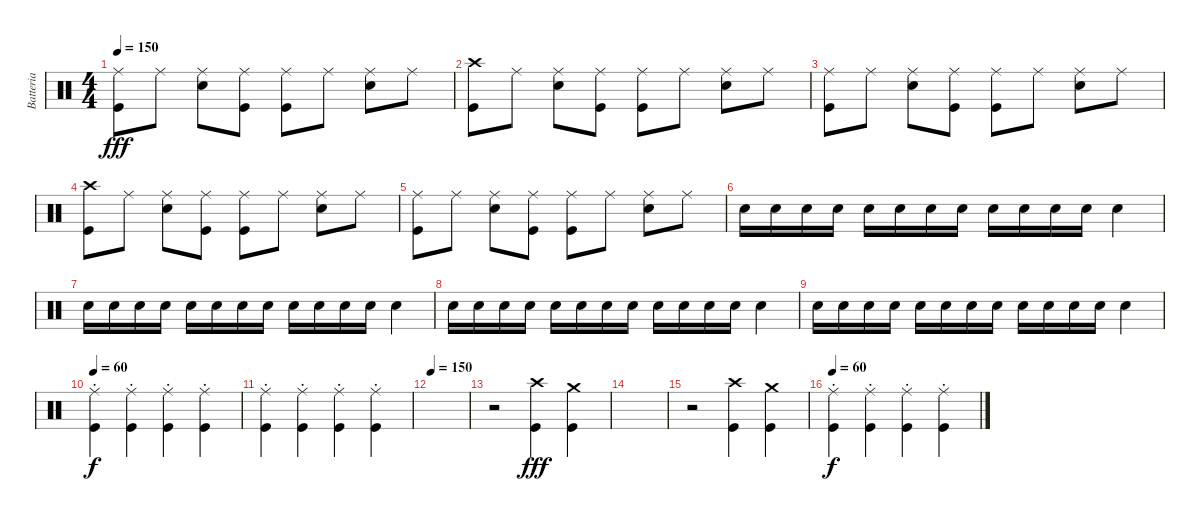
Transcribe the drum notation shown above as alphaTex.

\track ("Batteria" "Batteria") {instrument percussion}
\staff {score}
\articulation defaults
\ts (4 4)
\tempo 150
\clef neutral
\ks c
("Kick (hit)" "Ride (middle)").8{dy fff} "Ride (middle)".8 ("Ride (middle)" "Electric Snare (hit)").8 ("Kick (hit)" "Ride (middle)").8 ("Kick (hit)" "Ride (middle)").8 "Ride (middle)".8 ("Electric Snare (hit)" "Ride (middle)").8 "Ride (middle)".8 |
("Kick (hit)" "Crash high (hit)").8 "Ride (middle)".8 ("Ride (middle)" "Electric Snare (hit)").8 ("Kick (hit)" "Ride (middle)").8 ("Kick (hit)" "Ride (middle)").8 "Ride (middle)".8 ("Electric Snare (hit)" "Ride (middle)").8 "Ride (middle)".8 |
("Kick (hit)" "Ride (middle)").8 "Ride (middle)".8 ("Ride (middle)" "Electric Snare (hit)").8 ("Kick (hit)" "Ride (middle)").8 ("Kick (hit)" "Ride (middle)").8 "Ride (middle)".8 ("Electric Snare (hit)" "Ride (middle)").8 "Ride (middle)".8 |
("Kick (hit)" "Crash high (hit)").8 "Ride (middle)".8 ("Ride (middle)" "Electric Snare (hit)").8 ("Kick (hit)" "Ride (middle)").8 ("Kick (hit)" "Ride (middle)").8 "Ride (middle)".8 ("Electric Snare (hit)" "Ride (middle)").8 "Ride (middle)".8 |
("Kick (hit)" "Ride (middle)").8 "Ride (middle)".8 ("Ride (middle)" "Electric Snare (hit)").8 ("Kick (hit)" "Ride (middle)").8 ("Kick (hit)" "Ride (middle)").8 "Ride (middle)".8 ("Electric Snare (hit)" "Ride (middle)").8 "Ride (middle)".8 |
"Electric Snare (hit)".16 "Electric Snare (hit)".16 "Electric Snare (hit)".16 "Electric Snare (hit)".16 "Electric Snare (hit)".16 "Electric Snare (hit)".16 "Electric Snare (hit)".16 "Electric Snare (hit)".16 "Electric Snare (hit)".16 "Electric Snare (hit)".16 "Electric Snare (hit)".16 "Electric Snare (hit)".16 "Electric Snare (hit)".4 |
"Electric Snare (hit)".16 "Electric Snare (hit)".16 "Electric Snare (hit)".16 "Electric Snare (hit)".16 "Electric Snare (hit)".16 "Electric Snare (hit)".16 "Electric Snare (hit)".16 "Electric Snare (hit)".16 "Electric Snare (hit)".16 "Electric Snare (hit)".16 "Electric Snare (hit)".16 "Electric Snare (hit)".16 "Electric Snare (hit)".4 |
"Electric Snare (hit)".16 "Electric Snare (hit)".16 "Electric Snare (hit)".16 "Electric Snare (hit)".16 "Electric Snare (hit)".16 "Electric Snare (hit)".16 "Electric Snare (hit)".16 "Electric Snare (hit)".16 "Electric Snare (hit)".16 "Electric Snare (hit)".16 "Electric Snare (hit)".16 "Electric Snare (hit)".16 "Electric Snare (hit)".4 |
"Electric Snare (hit)".16 "Electric Snare (hit)".16 "Electric Snare (hit)".16 "Electric Snare (hit)".16 "Electric Snare (hit)".16 "Electric Snare (hit)".16 "Electric Snare (hit)".16 "Electric Snare (hit)".16 "Electric Snare (hit)".16 "Electric Snare (hit)".16 "Electric Snare (hit)".16 "Electric Snare (hit)".16 "Electric Snare (hit)".4 |
\tempo 60
("Ride (middle)"{st} "Kick (hit)"{st}).4{dy f} ("Ride (middle)"{st} "Kick (hit)"{st}).4 ("Ride (middle)"{st} "Kick (hit)"{st}).4 ("Ride (middle)"{st} "Kick (hit)"{st}).4 |
("Ride (middle)"{st} "Kick (hit)"{st}).4 ("Ride (middle)"{st} "Kick (hit)"{st}).4 ("Ride (middle)"{st} "Kick (hit)"{st}).4 ("Ride (middle)"{st} "Kick (hit)"{st}).4 |
\tempo 150
|
r.2 ("Kick (hit)" "Crash high (hit)").4{dy fff} ("Crash medium (hit)" "Kick (hit)").4 |
|
r.2 ("Kick (hit)" "Crash high (hit)").4 ("Crash medium (hit)" "Kick (hit)").4 |
\tempo 60
("Ride (middle)"{st} "Kick (hit)"{st}).4{dy f} ("Ride (middle)"{st} "Kick (hit)"{st}).4 ("Ride (middle)"{st} "Kick (hit)"{st}).4 ("Ride (middle)"{st} "Kick (hit)"{st}).4
